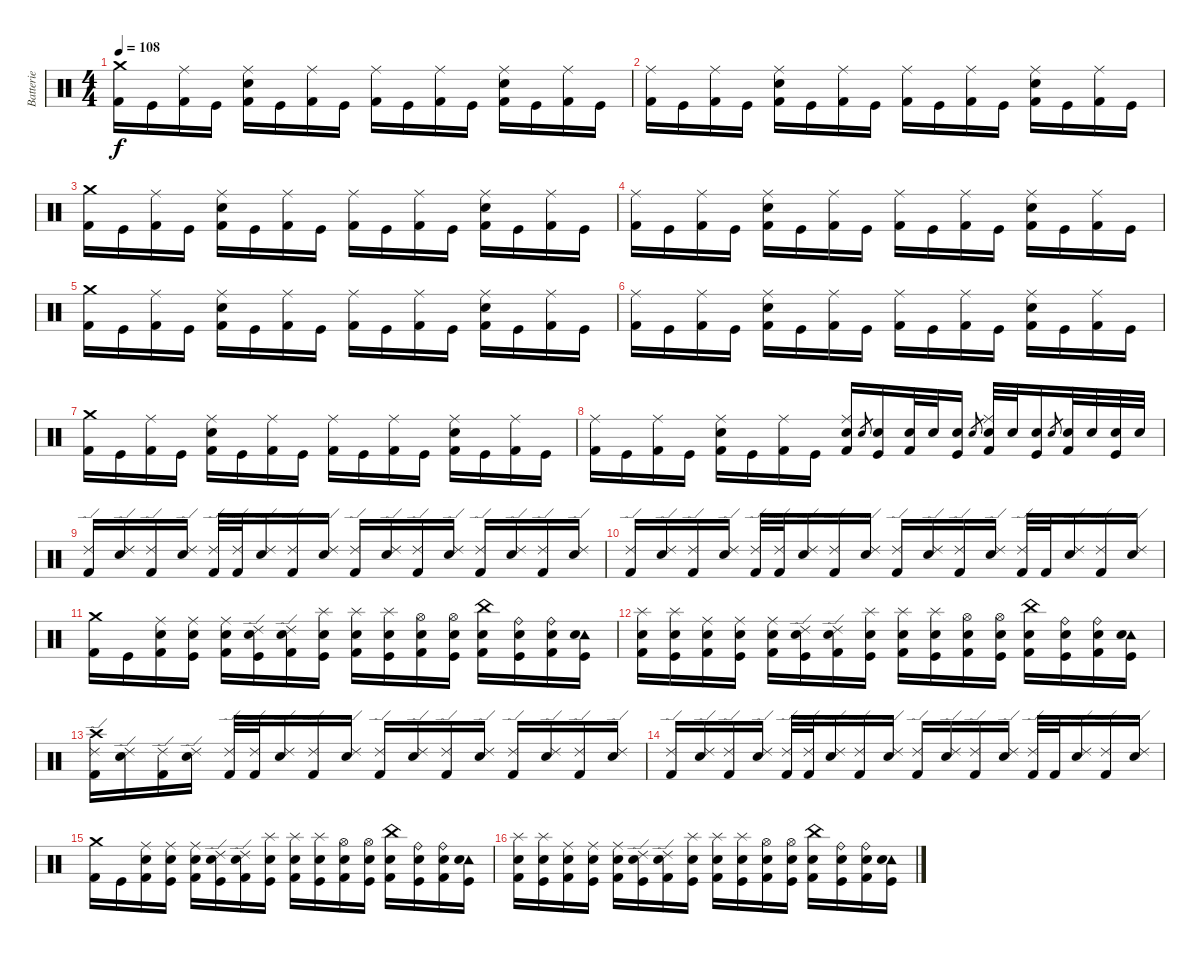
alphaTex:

\track ("Batterie" "Batterie") {instrument percussion}
\staff {score}
\articulation defaults
\ts (4 4)
\tempo 108
\clef neutral
\ks c
("Crash medium (hit)" "Kick (hit) 2").16{dy f} "Kick (hit)".16 ("Ride (middle)" "Kick (hit) 2").16 "Kick (hit)".16 ("Ride (middle)" "Snare (hit) 2" "Kick (hit) 2").16 "Kick (hit)".16 ("Ride (middle)" "Kick (hit) 2").16 "Kick (hit)".16 ("Ride (middle)" "Kick (hit) 2").16 "Kick (hit)".16 ("Ride (middle)" "Kick (hit) 2").16 "Kick (hit)".16 ("Ride (middle)" "Snare (hit) 2" "Kick (hit) 2").16 "Kick (hit)".16 ("Ride (middle)" "Kick (hit) 2").16 "Kick (hit)".16 |
("Ride (middle)" "Kick (hit) 2").16 "Kick (hit)".16 ("Ride (middle)" "Kick (hit) 2").16 "Kick (hit)".16 ("Ride (middle)" "Snare (hit) 2" "Kick (hit) 2").16 "Kick (hit)".16 ("Ride (middle)" "Kick (hit) 2").16 "Kick (hit)".16 ("Ride (middle)" "Kick (hit) 2").16 "Kick (hit)".16 ("Ride (middle)" "Kick (hit) 2").16 "Kick (hit)".16 ("Ride (middle)" "Snare (hit) 2" "Kick (hit) 2").16 "Kick (hit)".16 ("Ride (middle)" "Kick (hit) 2").16 "Kick (hit)".16 |
("Crash medium (hit)" "Kick (hit) 2").16 "Kick (hit)".16 ("Ride (middle)" "Kick (hit) 2").16 "Kick (hit)".16 ("Ride (middle)" "Snare (hit) 2" "Kick (hit) 2").16 "Kick (hit)".16 ("Ride (middle)" "Kick (hit) 2").16 "Kick (hit)".16 ("Ride (middle)" "Kick (hit) 2").16 "Kick (hit)".16 ("Ride (middle)" "Kick (hit) 2").16 "Kick (hit)".16 ("Ride (middle)" "Snare (hit) 2" "Kick (hit) 2").16 "Kick (hit)".16 ("Ride (middle)" "Kick (hit) 2").16 "Kick (hit)".16 |
("Ride (middle)" "Kick (hit) 2").16 "Kick (hit)".16 ("Ride (middle)" "Kick (hit) 2").16 "Kick (hit)".16 ("Ride (middle)" "Snare (hit) 2" "Kick (hit) 2").16 "Kick (hit)".16 ("Ride (middle)" "Kick (hit) 2").16 "Kick (hit)".16 ("Ride (middle)" "Kick (hit) 2").16 "Kick (hit)".16 ("Ride (middle)" "Kick (hit) 2").16 "Kick (hit)".16 ("Ride (middle)" "Snare (hit) 2" "Kick (hit) 2").16 "Kick (hit)".16 ("Ride (middle)" "Kick (hit) 2").16 "Kick (hit)".16 |
("Crash medium (hit)" "Kick (hit) 2").16 "Kick (hit)".16 ("Ride (middle)" "Kick (hit) 2").16 "Kick (hit)".16 ("Ride (middle)" "Snare (hit) 2" "Kick (hit) 2").16 "Kick (hit)".16 ("Ride (middle)" "Kick (hit) 2").16 "Kick (hit)".16 ("Ride (middle)" "Kick (hit) 2").16 "Kick (hit)".16 ("Ride (middle)" "Kick (hit) 2").16 "Kick (hit)".16 ("Ride (middle)" "Snare (hit) 2" "Kick (hit) 2").16 "Kick (hit)".16 ("Ride (middle)" "Kick (hit) 2").16 "Kick (hit)".16 |
("Ride (middle)" "Kick (hit) 2").16 "Kick (hit)".16 ("Ride (middle)" "Kick (hit) 2").16 "Kick (hit)".16 ("Ride (middle)" "Snare (hit) 2" "Kick (hit) 2").16 "Kick (hit)".16 ("Ride (middle)" "Kick (hit) 2").16 "Kick (hit)".16 ("Ride (middle)" "Kick (hit) 2").16 "Kick (hit)".16 ("Ride (middle)" "Kick (hit) 2").16 "Kick (hit)".16 ("Ride (middle)" "Snare (hit) 2" "Kick (hit) 2").16 "Kick (hit)".16 ("Ride (middle)" "Kick (hit) 2").16 "Kick (hit)".16 |
("Crash medium (hit)" "Kick (hit) 2").16 "Kick (hit)".16 ("Ride (middle)" "Kick (hit) 2").16 "Kick (hit)".16 ("Ride (middle)" "Snare (hit) 2" "Kick (hit) 2").16 "Kick (hit)".16 ("Ride (middle)" "Kick (hit) 2").16 "Kick (hit)".16 ("Ride (middle)" "Kick (hit) 2").16 "Kick (hit)".16 ("Ride (middle)" "Kick (hit) 2").16 "Kick (hit)".16 ("Ride (middle)" "Snare (hit) 2" "Kick (hit) 2").16 "Kick (hit)".16 ("Ride (middle)" "Kick (hit) 2").16 "Kick (hit)".16 |
("Ride (middle)" "Kick (hit) 2").16 "Kick (hit)".16 ("Ride (middle)" "Kick (hit) 2").16 "Kick (hit)".16 ("Ride (middle)" "Snare (hit) 2" "Kick (hit) 2").16 "Kick (hit)".16 ("Ride (middle)" "Kick (hit) 2").16 "Kick (hit)".16 ("Ride (middle)" "Snare (hit) 2" "Kick (hit) 2").16 "Snare (hit) 2".8{gr} ("Snare (hit) 2" "Kick (hit)").16 ("Snare (hit) 2" "Kick (hit) 2").32 "Snare (hit) 2".32 ("Snare (hit) 2" "Kick (hit)").16 "Snare (hit) 2".8{gr} ("Ride (middle)" "Snare (hit) 2" "Kick (hit) 2").32 "Snare (hit) 2".32 ("Snare (hit) 2" "Kick (hit)").16 "Snare (hit) 2".8{gr} ("Snare (hit) 2" "Kick (hit) 2").32 "Snare (hit) 2".32 ("Snare (hit) 2" "Kick (hit)").32 "Snare (hit) 2".32 |
("Ride (edge) 2" "Kick (hit) 2").16 ("Ride (edge) 2" "Snare (hit) 2").16 ("Ride (edge) 2" "Kick (hit) 2").16 ("Ride (edge) 2" "Snare (hit) 2").16 ("Ride (edge) 2" "Kick (hit) 2").32 ("Ride (edge) 2" "Kick (hit) 2").32 ("Ride (edge) 2" "Snare (hit) 2").16 ("Ride (edge) 2" "Kick (hit) 2").16 ("Ride (edge) 2" "Snare (hit) 2").16 ("Ride (edge) 2" "Kick (hit) 2").16 ("Ride (edge) 2" "Snare (hit) 2").16 ("Ride (edge) 2" "Kick (hit) 2").16 ("Ride (edge) 2" "Snare (hit) 2").16 ("Ride (edge) 2" "Kick (hit) 2").16 ("Ride (edge) 2" "Snare (hit) 2").16 ("Ride (edge) 2" "Kick (hit) 2").16 ("Ride (edge) 2" "Snare (hit) 2").16 |
("Ride (edge) 2" "Kick (hit) 2").16 ("Ride (edge) 2" "Snare (hit) 2").16 ("Ride (edge) 2" "Kick (hit) 2").16 ("Ride (edge) 2" "Snare (hit) 2").16 ("Ride (edge) 2" "Kick (hit) 2").32 ("Ride (edge) 2" "Kick (hit) 2").32 ("Ride (edge) 2" "Snare (hit) 2").16 ("Ride (edge) 2" "Kick (hit) 2").16 ("Ride (edge) 2" "Snare (hit) 2").16 ("Ride (edge) 2" "Kick (hit) 2").16 ("Ride (edge) 2" "Snare (hit) 2").16 ("Ride (edge) 2" "Kick (hit) 2").16 ("Ride (edge) 2" "Snare (hit) 2").16 ("Ride (edge) 2" "Kick (hit) 2").32 "Kick (hit) 2".32 ("Ride (edge) 2" "Snare (hit) 2").16 ("Ride (edge) 2" "Kick (hit) 2").16 ("Ride (edge) 2" "Snare (hit) 2").16 |
("Crash medium (hit)" "Kick (hit) 2").16 "Kick (hit)".16 ("Ride (middle)" "Snare (hit) 2" "Kick (hit) 2").16 ("Ride (middle)" "Snare (hit) 2" "Kick (hit)").16 ("Ride (middle)" "Snare (hit) 2" "Kick (hit) 2").16 ("Ride (edge) 2" "Snare (hit) 2" "Kick (hit)").16 ("Ride (edge) 2" "Snare (hit) 2" "Kick (hit) 2").16 ("Splash (hit)" "Snare (hit) 2" "Kick (hit)").16 ("Splash (hit)" "Snare (hit) 2" "Kick (hit) 2").16 ("Splash (hit)" "Snare (hit) 2" "Kick (hit)").16 ("Hi-Hat (open)" "Snare (hit) 2" "Kick (hit) 2").16 ("Hi-Hat (open)" "Snare (hit) 2" "Kick (hit)").16 ("China (hit)" "Snare (hit) 2" "Kick (hit) 2").16 ("Ride (bell)" "Snare (hit) 2" "Kick (hit)").16 ("Ride (bell)" "Snare (hit) 2" "Kick (hit) 2").16 ("Tambourine (hit)" "Snare (hit) 2" "Kick (hit)").16 |
("Splash (hit)" "Snare (hit) 2" "Kick (hit) 2").16 ("Splash (hit)" "Snare (hit) 2" "Kick (hit)").16 ("Ride (middle)" "Snare (hit) 2" "Kick (hit) 2").16 ("Ride (middle)" "Snare (hit) 2" "Kick (hit)").16 ("Ride (middle)" "Snare (hit) 2" "Kick (hit) 2").16 ("Ride (edge) 2" "Snare (hit) 2" "Kick (hit)").16 ("Ride (edge) 2" "Snare (hit) 2" "Kick (hit) 2").16 ("Splash (hit)" "Snare (hit) 2" "Kick (hit)").16 ("Splash (hit)" "Snare (hit) 2" "Kick (hit) 2").16 ("Splash (hit)" "Snare (hit) 2" "Kick (hit)").16 ("Hi-Hat (open)" "Snare (hit) 2" "Kick (hit) 2").16 ("Hi-Hat (open)" "Snare (hit) 2" "Kick (hit)").16 ("China (hit)" "Snare (hit) 2" "Kick (hit) 2").16 ("Ride (bell)" "Snare (hit) 2" "Kick (hit)").16 ("Ride (bell)" "Snare (hit) 2" "Kick (hit) 2").16 ("Tambourine (hit)" "Snare (hit) 2" "Kick (hit)").16 |
("Crash high (hit)" "Ride (edge) 2" "Kick (hit) 2").16 ("Ride (edge) 2" "Snare (hit) 2").16 ("Ride (edge) 2" "Kick (hit) 2").16 ("Ride (edge) 2" "Snare (hit) 2").16 ("Ride (edge) 2" "Kick (hit) 2").32 ("Ride (edge) 2" "Kick (hit) 2").32 ("Ride (edge) 2" "Snare (hit) 2").16 ("Ride (edge) 2" "Kick (hit) 2").16 ("Ride (edge) 2" "Snare (hit) 2").16 ("Ride (edge) 2" "Kick (hit) 2").16 ("Ride (edge) 2" "Snare (hit) 2").16 ("Ride (edge) 2" "Kick (hit) 2").16 ("Ride (edge) 2" "Snare (hit) 2").16 ("Ride (edge) 2" "Kick (hit) 2").16 ("Ride (edge) 2" "Snare (hit) 2").16 ("Ride (edge) 2" "Kick (hit) 2").16 ("Ride (edge) 2" "Snare (hit) 2").16 |
("Ride (edge) 2" "Kick (hit) 2").16 ("Ride (edge) 2" "Snare (hit) 2").16 ("Ride (edge) 2" "Kick (hit) 2").16 ("Ride (edge) 2" "Snare (hit) 2").16 ("Ride (edge) 2" "Kick (hit) 2").32 ("Ride (edge) 2" "Kick (hit) 2").32 ("Ride (edge) 2" "Snare (hit) 2").16 ("Ride (edge) 2" "Kick (hit) 2").16 ("Ride (edge) 2" "Snare (hit) 2").16 ("Ride (edge) 2" "Kick (hit) 2").16 ("Ride (edge) 2" "Snare (hit) 2").16 ("Ride (edge) 2" "Kick (hit) 2").16 ("Ride (edge) 2" "Snare (hit) 2").16 ("Ride (edge) 2" "Kick (hit) 2").32 "Kick (hit) 2".32 ("Ride (edge) 2" "Snare (hit) 2").16 ("Ride (edge) 2" "Kick (hit) 2").16 ("Ride (edge) 2" "Snare (hit) 2").16 |
("Crash medium (hit)" "Kick (hit) 2").16 "Kick (hit)".16 ("Ride (middle)" "Snare (hit) 2" "Kick (hit) 2").16 ("Ride (middle)" "Snare (hit) 2" "Kick (hit)").16 ("Ride (middle)" "Snare (hit) 2" "Kick (hit) 2").16 ("Ride (edge) 2" "Snare (hit) 2" "Kick (hit)").16 ("Ride (edge) 2" "Snare (hit) 2" "Kick (hit) 2").16 ("Splash (hit)" "Snare (hit) 2" "Kick (hit)").16 ("Splash (hit)" "Snare (hit) 2" "Kick (hit) 2").16 ("Splash (hit)" "Snare (hit) 2" "Kick (hit)").16 ("Hi-Hat (open)" "Snare (hit) 2" "Kick (hit) 2").16 ("Hi-Hat (open)" "Snare (hit) 2" "Kick (hit)").16 ("China (hit)" "Snare (hit) 2" "Kick (hit) 2").16 ("Ride (bell)" "Snare (hit) 2" "Kick (hit)").16 ("Ride (bell)" "Snare (hit) 2" "Kick (hit) 2").16 ("Tambourine (hit)" "Snare (hit) 2" "Kick (hit)").16 |
("Splash (hit)" "Snare (hit) 2" "Kick (hit) 2").16 ("Splash (hit)" "Snare (hit) 2" "Kick (hit)").16 ("Ride (middle)" "Snare (hit) 2" "Kick (hit) 2").16 ("Ride (middle)" "Snare (hit) 2" "Kick (hit)").16 ("Ride (middle)" "Snare (hit) 2" "Kick (hit) 2").16 ("Ride (edge) 2" "Snare (hit) 2" "Kick (hit)").16 ("Ride (edge) 2" "Snare (hit) 2" "Kick (hit) 2").16 ("Splash (hit)" "Snare (hit) 2" "Kick (hit)").16 ("Splash (hit)" "Snare (hit) 2" "Kick (hit) 2").16 ("Splash (hit)" "Snare (hit) 2" "Kick (hit)").16 ("Hi-Hat (open)" "Snare (hit) 2" "Kick (hit) 2").16 ("Hi-Hat (open)" "Snare (hit) 2" "Kick (hit)").16 ("China (hit)" "Snare (hit) 2" "Kick (hit) 2").16 ("Ride (bell)" "Snare (hit) 2" "Kick (hit)").16 ("Ride (bell)" "Snare (hit) 2" "Kick (hit) 2").16 ("Tambourine (hit)" "Snare (hit) 2" "Kick (hit)").16
